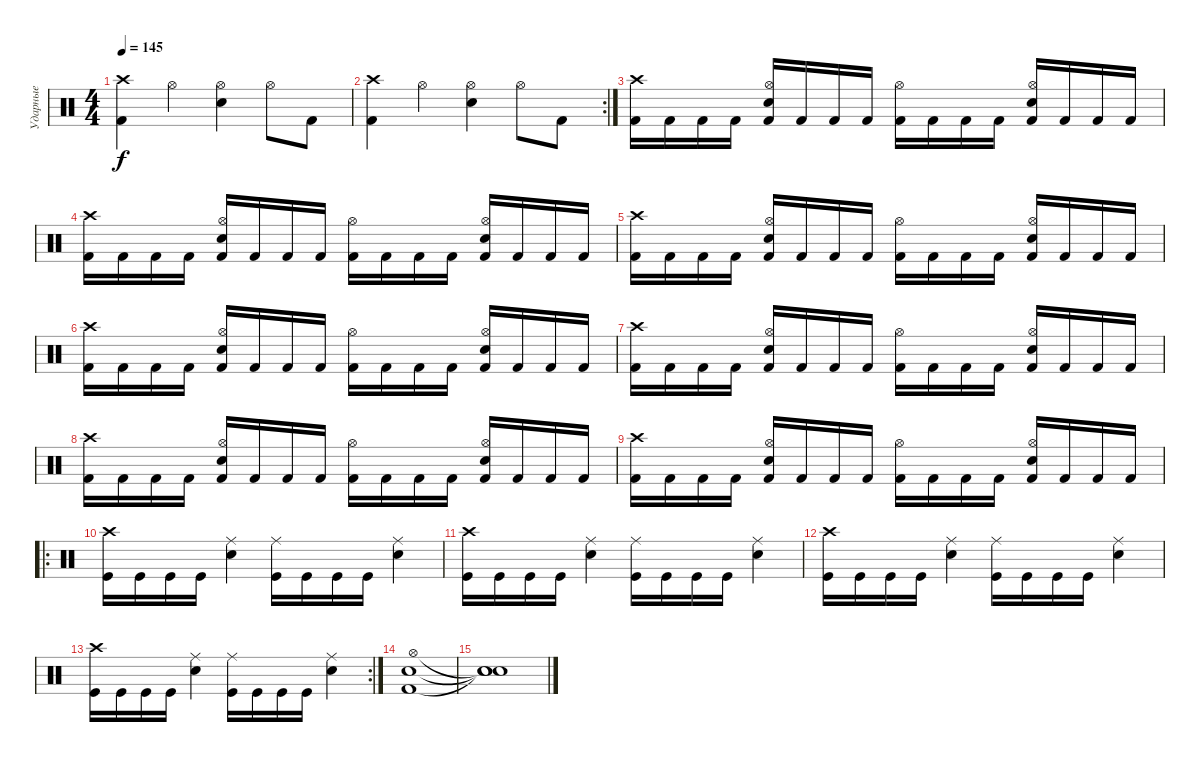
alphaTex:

\track ("Ударные" "Ударные") {instrument percussion}
\staff {score}
\articulation defaults
\ts (4 4)
\tempo 145
\clef neutral
\ks c
("Kick (hit) 2" "Crash high (hit)").4{dy f} "Hi-Hat (open)".4 ("Snare (hit) 2" "Hi-Hat (open)").4 "Hi-Hat (open)".8 "Kick (hit) 2".8 |
\rc 2
("Kick (hit) 2" "Crash high (hit)").4 "Hi-Hat (open)".4 ("Snare (hit) 2" "Hi-Hat (open)").4 "Hi-Hat (open)".8 "Kick (hit) 2".8 |
("Kick (hit) 2" "Crash high (hit)").16 "Kick (hit) 2".16 "Kick (hit) 2".16 "Kick (hit) 2".16 ("Kick (hit) 2" "Snare (hit) 2" "Hi-Hat (open)").16 "Kick (hit) 2".16 "Kick (hit) 2".16 "Kick (hit) 2".16 ("Kick (hit) 2" "Hi-Hat (open)").16 "Kick (hit) 2".16 "Kick (hit) 2".16 "Kick (hit) 2".16 ("Kick (hit) 2" "Snare (hit) 2" "Hi-Hat (open)").16 "Kick (hit) 2".16 "Kick (hit) 2".16 "Kick (hit) 2".16 |
("Kick (hit) 2" "Crash high (hit)").16 "Kick (hit) 2".16 "Kick (hit) 2".16 "Kick (hit) 2".16 ("Kick (hit) 2" "Snare (hit) 2" "Hi-Hat (open)").16 "Kick (hit) 2".16 "Kick (hit) 2".16 "Kick (hit) 2".16 ("Kick (hit) 2" "Hi-Hat (open)").16 "Kick (hit) 2".16 "Kick (hit) 2".16 "Kick (hit) 2".16 ("Kick (hit) 2" "Snare (hit) 2" "Hi-Hat (open)").16 "Kick (hit) 2".16 "Kick (hit) 2".16 "Kick (hit) 2".16 |
("Kick (hit) 2" "Crash high (hit)").16 "Kick (hit) 2".16 "Kick (hit) 2".16 "Kick (hit) 2".16 ("Kick (hit) 2" "Snare (hit) 2" "Hi-Hat (open)").16 "Kick (hit) 2".16 "Kick (hit) 2".16 "Kick (hit) 2".16 ("Kick (hit) 2" "Hi-Hat (open)").16 "Kick (hit) 2".16 "Kick (hit) 2".16 "Kick (hit) 2".16 ("Kick (hit) 2" "Snare (hit) 2" "Hi-Hat (open)").16 "Kick (hit) 2".16 "Kick (hit) 2".16 "Kick (hit) 2".16 |
("Kick (hit) 2" "Crash high (hit)").16 "Kick (hit) 2".16 "Kick (hit) 2".16 "Kick (hit) 2".16 ("Kick (hit) 2" "Snare (hit) 2" "Hi-Hat (open)").16 "Kick (hit) 2".16 "Kick (hit) 2".16 "Kick (hit) 2".16 ("Kick (hit) 2" "Hi-Hat (open)").16 "Kick (hit) 2".16 "Kick (hit) 2".16 "Kick (hit) 2".16 ("Kick (hit) 2" "Snare (hit) 2" "Hi-Hat (open)").16 "Kick (hit) 2".16 "Kick (hit) 2".16 "Kick (hit) 2".16 |
("Kick (hit) 2" "Crash high (hit)").16 "Kick (hit) 2".16 "Kick (hit) 2".16 "Kick (hit) 2".16 ("Kick (hit) 2" "Snare (hit) 2" "Hi-Hat (open)").16 "Kick (hit) 2".16 "Kick (hit) 2".16 "Kick (hit) 2".16 ("Kick (hit) 2" "Hi-Hat (open)").16 "Kick (hit) 2".16 "Kick (hit) 2".16 "Kick (hit) 2".16 ("Kick (hit) 2" "Snare (hit) 2" "Hi-Hat (open)").16 "Kick (hit) 2".16 "Kick (hit) 2".16 "Kick (hit) 2".16 |
("Kick (hit) 2" "Crash high (hit)").16 "Kick (hit) 2".16 "Kick (hit) 2".16 "Kick (hit) 2".16 ("Kick (hit) 2" "Snare (hit) 2" "Hi-Hat (open)").16 "Kick (hit) 2".16 "Kick (hit) 2".16 "Kick (hit) 2".16 ("Kick (hit) 2" "Hi-Hat (open)").16 "Kick (hit) 2".16 "Kick (hit) 2".16 "Kick (hit) 2".16 ("Kick (hit) 2" "Snare (hit) 2" "Hi-Hat (open)").16 "Kick (hit) 2".16 "Kick (hit) 2".16 "Kick (hit) 2".16 |
("Kick (hit) 2" "Crash high (hit)").16 "Kick (hit) 2".16 "Kick (hit) 2".16 "Kick (hit) 2".16 ("Kick (hit) 2" "Snare (hit) 2" "Hi-Hat (open)").16 "Kick (hit) 2".16 "Kick (hit) 2".16 "Kick (hit) 2".16 ("Kick (hit) 2" "Hi-Hat (open)").16 "Kick (hit) 2".16 "Kick (hit) 2".16 "Kick (hit) 2".16 ("Kick (hit) 2" "Snare (hit) 2" "Hi-Hat (open)").16 "Kick (hit) 2".16 "Kick (hit) 2".16 "Kick (hit) 2".16 |
\ro
("Crash high (hit)" "Kick (hit)").16 "Kick (hit)".16 "Kick (hit)".16 "Kick (hit)".16 ("Ride (middle)" "Snare (hit) 2").4 ("Ride (middle)" "Kick (hit)").16 "Kick (hit)".16 "Kick (hit)".16 "Kick (hit)".16 ("Ride (middle)" "Snare (hit) 2").4 |
("Crash high (hit)" "Kick (hit)").16 "Kick (hit)".16 "Kick (hit)".16 "Kick (hit)".16 ("Ride (middle)" "Snare (hit) 2").4 ("Ride (middle)" "Kick (hit)").16 "Kick (hit)".16 "Kick (hit)".16 "Kick (hit)".16 ("Ride (middle)" "Snare (hit) 2").4 |
("Crash high (hit)" "Kick (hit)").16 "Kick (hit)".16 "Kick (hit)".16 "Kick (hit)".16 ("Ride (middle)" "Snare (hit) 2").4 ("Ride (middle)" "Kick (hit)").16 "Kick (hit)".16 "Kick (hit)".16 "Kick (hit)".16 ("Ride (middle)" "Snare (hit) 2").4 |
\rc 2
("Crash high (hit)" "Kick (hit)").16 "Kick (hit)".16 "Kick (hit)".16 "Kick (hit)".16 ("Ride (middle)" "Snare (hit) 2").4 ("Ride (middle)" "Kick (hit)").16 "Kick (hit)".16 "Kick (hit)".16 "Kick (hit)".16 ("Ride (middle)" "Snare (hit) 2").4 |
("Kick (hit) 2" "Snare (hit) 2" "Hi-Hat (open)").1 |
("Snare (hit)"{t} "Snare (hit)"{t} "Snare (hit)"{t}).1
